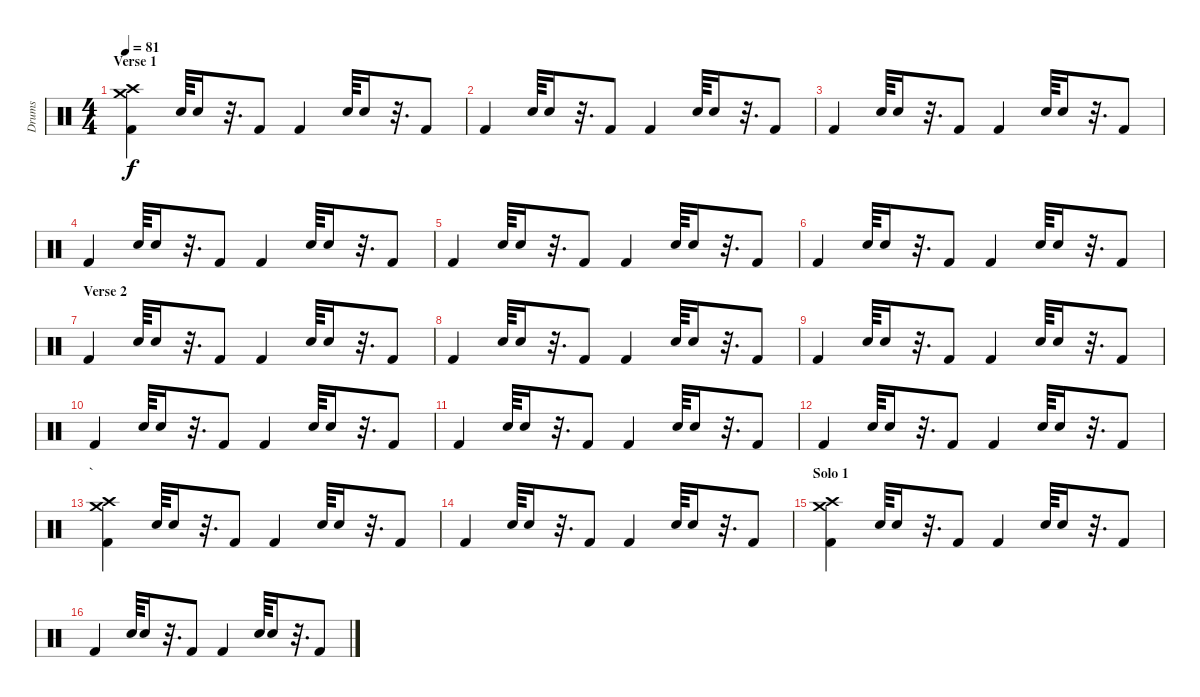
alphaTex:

\track ("Drums" "Drums") {instrument percussion}
\staff {score}
\articulation defaults
\ts (4 4)
\section ("" "Verse 1")
\tempo 81
\clef neutral
\ks c
("Crash medium (hit)" "Crash high (hit)" "Kick (hit) 2").4{dy f} "Electric Snare (hit)".64 "Electric Snare (hit)".16 r.32{d} "Kick (hit) 2".8 "Kick (hit) 2".4 "Electric Snare (hit)".64 "Electric Snare (hit)".16 r.32{d} "Kick (hit) 2".8 |
"Kick (hit) 2".4 "Electric Snare (hit)".64 "Electric Snare (hit)".16 r.32{d} "Kick (hit) 2".8 "Kick (hit) 2".4 "Electric Snare (hit)".64 "Electric Snare (hit)".16 r.32{d} "Kick (hit) 2".8 |
"Kick (hit) 2".4 "Electric Snare (hit)".64 "Electric Snare (hit)".16 r.32{d} "Kick (hit) 2".8 "Kick (hit) 2".4 "Electric Snare (hit)".64 "Electric Snare (hit)".16 r.32{d} "Kick (hit) 2".8 |
"Kick (hit) 2".4 "Electric Snare (hit)".64 "Electric Snare (hit)".16 r.32{d} "Kick (hit) 2".8 "Kick (hit) 2".4 "Electric Snare (hit)".64 "Electric Snare (hit)".16 r.32{d} "Kick (hit) 2".8 |
"Kick (hit) 2".4 "Electric Snare (hit)".64 "Electric Snare (hit)".16 r.32{d} "Kick (hit) 2".8 "Kick (hit) 2".4 "Electric Snare (hit)".64 "Electric Snare (hit)".16 r.32{d} "Kick (hit) 2".8 |
"Kick (hit) 2".4 "Electric Snare (hit)".64 "Electric Snare (hit)".16 r.32{d} "Kick (hit) 2".8 "Kick (hit) 2".4 "Electric Snare (hit)".64 "Electric Snare (hit)".16 r.32{d} "Kick (hit) 2".8 |
\section ("" "Verse 2")
"Kick (hit) 2".4 "Electric Snare (hit)".64 "Electric Snare (hit)".16 r.32{d} "Kick (hit) 2".8 "Kick (hit) 2".4 "Electric Snare (hit)".64 "Electric Snare (hit)".16 r.32{d} "Kick (hit) 2".8 |
"Kick (hit) 2".4 "Electric Snare (hit)".64 "Electric Snare (hit)".16 r.32{d} "Kick (hit) 2".8 "Kick (hit) 2".4 "Electric Snare (hit)".64 "Electric Snare (hit)".16 r.32{d} "Kick (hit) 2".8 |
"Kick (hit) 2".4 "Electric Snare (hit)".64 "Electric Snare (hit)".16 r.32{d} "Kick (hit) 2".8 "Kick (hit) 2".4 "Electric Snare (hit)".64 "Electric Snare (hit)".16 r.32{d} "Kick (hit) 2".8 |
"Kick (hit) 2".4 "Electric Snare (hit)".64 "Electric Snare (hit)".16 r.32{d} "Kick (hit) 2".8 "Kick (hit) 2".4 "Electric Snare (hit)".64 "Electric Snare (hit)".16 r.32{d} "Kick (hit) 2".8 |
"Kick (hit) 2".4 "Electric Snare (hit)".64 "Electric Snare (hit)".16 r.32{d} "Kick (hit) 2".8 "Kick (hit) 2".4 "Electric Snare (hit)".64 "Electric Snare (hit)".16 r.32{d} "Kick (hit) 2".8 |
"Kick (hit) 2".4 "Electric Snare (hit)".64 "Electric Snare (hit)".16 r.32{d} "Kick (hit) 2".8 "Kick (hit) 2".4 "Electric Snare (hit)".64 "Electric Snare (hit)".16 r.32{d} "Kick (hit) 2".8 |
\section ("" "`")
("Crash medium (hit)" "Crash high (hit)" "Kick (hit) 2").4 "Electric Snare (hit)".64 "Electric Snare (hit)".16 r.32{d} "Kick (hit) 2".8 "Kick (hit) 2".4 "Electric Snare (hit)".64 "Electric Snare (hit)".16 r.32{d} "Kick (hit) 2".8 |
"Kick (hit) 2".4 "Electric Snare (hit)".64 "Electric Snare (hit)".16 r.32{d} "Kick (hit) 2".8 "Kick (hit) 2".4 "Electric Snare (hit)".64 "Electric Snare (hit)".16 r.32{d} "Kick (hit) 2".8 |
\section ("" "Solo 1")
("Crash high (hit)" "Crash medium (hit)" "Kick (hit) 2").4 "Electric Snare (hit)".64 "Electric Snare (hit)".16 r.32{d} "Kick (hit) 2".8 "Kick (hit) 2".4 "Electric Snare (hit)".64 "Electric Snare (hit)".16 r.32{d} "Kick (hit) 2".8 |
"Kick (hit) 2".4 "Electric Snare (hit)".64 "Electric Snare (hit)".16 r.32{d} "Kick (hit) 2".8 "Kick (hit) 2".4 "Electric Snare (hit)".64 "Electric Snare (hit)".16 r.32{d} "Kick (hit) 2".8
